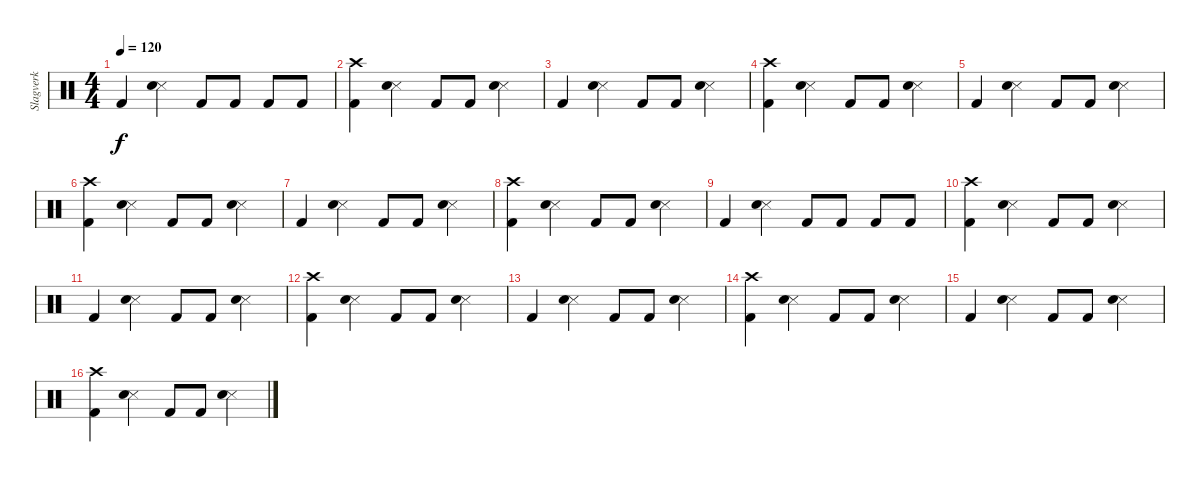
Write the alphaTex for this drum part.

\track ("Slagverk" "Slagverk") {instrument percussion}
\staff {score}
\articulation defaults
\ts (4 4)
\tempo 120
\clef neutral
\ks c "Kick (hit) 2".4{dy f}
("Snare (side stick) 3" "Snare (hit) 2").4 "Kick (hit) 2".8 "Kick (hit) 2".8 "Kick (hit) 2".8 "Kick (hit) 2".8 |
("Kick (hit) 2" "Crash high (hit)").4 ("Snare (side stick) 3" "Snare (hit) 2").4 "Kick (hit) 2".8 "Kick (hit) 2".8 ("Snare (side stick) 3" "Snare (hit) 2").4 |
"Kick (hit) 2".4 ("Snare (side stick) 3" "Snare (hit) 2").4 "Kick (hit) 2".8 "Kick (hit) 2".8 ("Snare (side stick) 3" "Snare (hit) 2").4 |
("Kick (hit) 2" "Crash high (hit)").4 ("Snare (side stick) 3" "Snare (hit) 2").4 "Kick (hit) 2".8 "Kick (hit) 2".8 ("Snare (side stick) 3" "Snare (hit) 2").4 |
"Kick (hit) 2".4 ("Snare (side stick) 3" "Snare (hit) 2").4 "Kick (hit) 2".8 "Kick (hit) 2".8 ("Snare (side stick) 3" "Snare (hit) 2").4 |
("Kick (hit) 2" "Crash high (hit)").4 ("Snare (side stick) 3" "Snare (hit) 2").4 "Kick (hit) 2".8 "Kick (hit) 2".8 ("Snare (side stick) 3" "Snare (hit) 2").4 |
"Kick (hit) 2".4 ("Snare (side stick) 3" "Snare (hit) 2").4 "Kick (hit) 2".8 "Kick (hit) 2".8 ("Snare (side stick) 3" "Snare (hit) 2").4 |
("Kick (hit) 2" "Crash high (hit)").4 ("Snare (side stick) 3" "Snare (hit) 2").4 "Kick (hit) 2".8 "Kick (hit) 2".8 ("Snare (side stick) 3" "Snare (hit) 2").4 |
"Kick (hit) 2".4 ("Snare (side stick) 3" "Snare (hit) 2").4 "Kick (hit) 2".8 "Kick (hit) 2".8 "Kick (hit) 2".8 "Kick (hit) 2".8 |
("Kick (hit) 2" "Crash high (hit)").4 ("Snare (side stick) 3" "Snare (hit) 2").4 "Kick (hit) 2".8 "Kick (hit) 2".8 ("Snare (side stick) 3" "Snare (hit) 2").4 |
"Kick (hit) 2".4 ("Snare (side stick) 3" "Snare (hit) 2").4 "Kick (hit) 2".8 "Kick (hit) 2".8 ("Snare (side stick) 3" "Snare (hit) 2").4 |
("Kick (hit) 2" "Crash high (hit)").4 ("Snare (side stick) 3" "Snare (hit) 2").4 "Kick (hit) 2".8 "Kick (hit) 2".8 ("Snare (side stick) 3" "Snare (hit) 2").4 |
"Kick (hit) 2".4 ("Snare (side stick) 3" "Snare (hit) 2").4 "Kick (hit) 2".8 "Kick (hit) 2".8 ("Snare (side stick) 3" "Snare (hit) 2").4 |
("Kick (hit) 2" "Crash high (hit)").4 ("Snare (side stick) 3" "Snare (hit) 2").4 "Kick (hit) 2".8 "Kick (hit) 2".8 ("Snare (side stick) 3" "Snare (hit) 2").4 |
"Kick (hit) 2".4 ("Snare (side stick) 3" "Snare (hit) 2").4 "Kick (hit) 2".8 "Kick (hit) 2".8 ("Snare (side stick) 3" "Snare (hit) 2").4 |
("Kick (hit) 2" "Crash high (hit)").4 ("Snare (side stick) 3" "Snare (hit) 2").4 "Kick (hit) 2".8 "Kick (hit) 2".8 ("Snare (side stick) 3" "Snare (hit) 2").4
